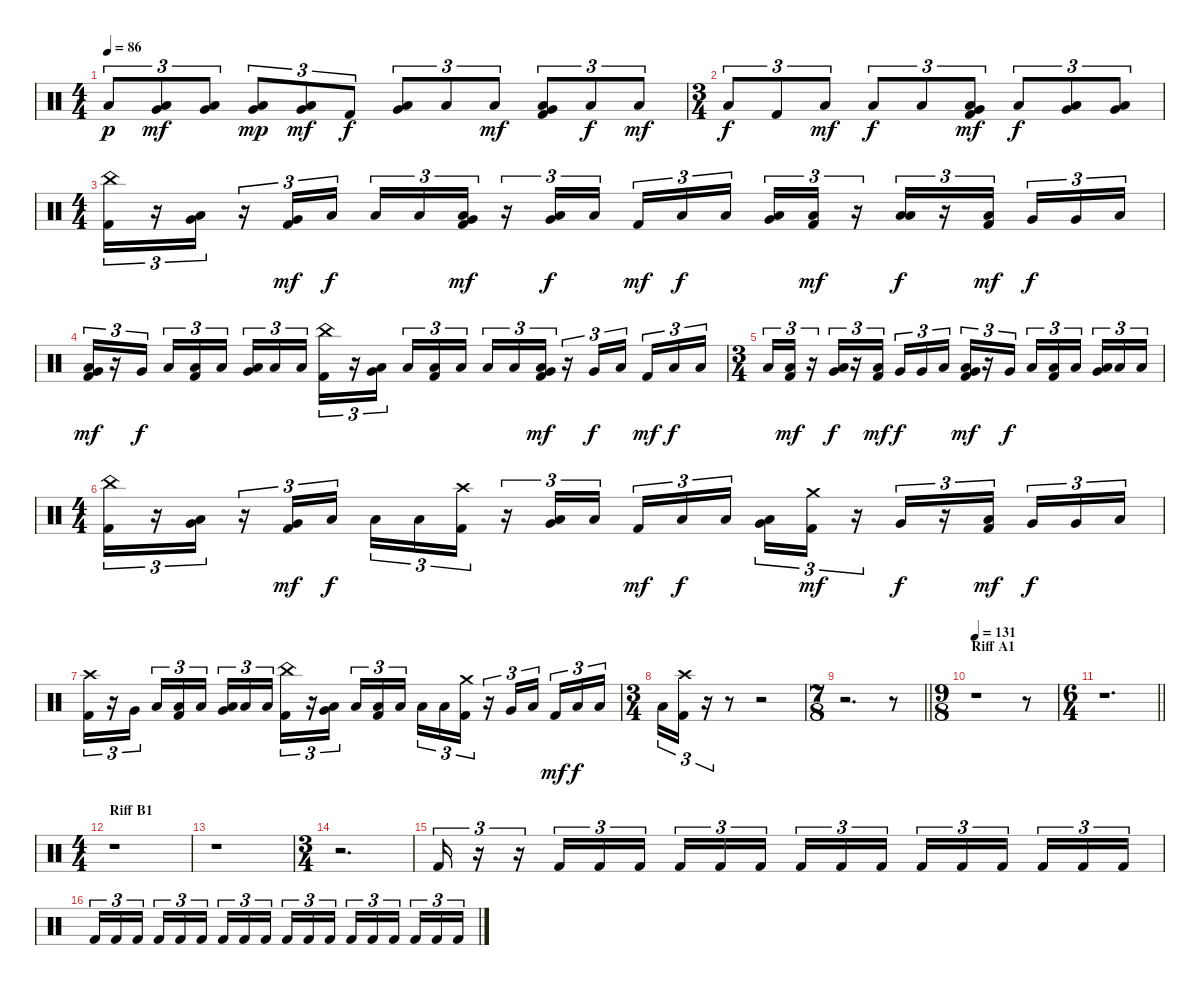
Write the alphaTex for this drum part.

\track "" {instrument percussion}
\staff {score}
\articulation defaults
\ts (4 4)
\tempo 86
\clef neutral
\ks c "Low Floor Tom (hit)".8{tu (3 2) dy p}
("Very Low Tom (hit)" "Low Floor Tom (hit)").8{tu (3 2) dy mf} ("Very Low Tom (hit)" "Low Floor Tom (hit)").8{tu (3 2)} ("Very Low Tom (hit)" "Low Floor Tom (hit)").8{tu (3 2) dy mp} ("Very Low Tom (hit)" "Low Floor Tom (hit)").8{tu (3 2) dy mf} "Kick (hit) 2".8{tu (3 2) dy f} ("Very Low Tom (hit)" "Low Floor Tom (hit)").8{tu (3 2)} "Low Floor Tom (hit)".8{tu (3 2)} "Low Floor Tom (hit)".8{tu (3 2) dy mf} ("Very Low Tom (hit)" "Low Floor Tom (hit)" "Kick (hit) 2").8{tu (3 2)} "Low Floor Tom (hit)".8{tu (3 2) dy f} "Low Floor Tom (hit)".8{tu (3 2) dy mf} |
\ts (3 4)
"Low Floor Tom (hit)".8{tu (3 2) dy f} "Kick (hit) 2".8{tu (3 2)} "Low Floor Tom (hit)".8{tu (3 2) dy mf} "Low Floor Tom (hit)".8{tu (3 2) dy f} "Low Floor Tom (hit)".8{tu (3 2)} ("Very Low Tom (hit)" "Low Floor Tom (hit)" "Kick (hit) 2").8{tu (3 2) dy mf} "Low Floor Tom (hit)".8{tu (3 2) dy f} ("Very Low Tom (hit)" "Low Floor Tom (hit)").8{tu (3 2)} ("Very Low Tom (hit)" "Low Floor Tom (hit)").8{tu (3 2)} |
\ts (4 4)
("China (hit)" "Kick (hit) 2").16{tu (3 2) volume 9} r.16{tu (3 2)} ("Low Tom (hit)" "Very Low Tom (hit)").16{tu (3 2)} r.16{tu (3 2)} ("Very Low Tom (hit)" "Kick (hit) 2").16{tu (3 2) dy mf} "Low Floor Tom (hit)".16{tu (3 2) dy f} "Low Floor Tom (hit)".16{tu (3 2)} "Low Floor Tom (hit)".16{tu (3 2)} ("Very Low Tom (hit)" "Low Floor Tom (hit)" "Kick (hit) 2").16{tu (3 2) dy mf} r.16{tu (3 2)} ("Very Low Tom (hit)" "Low Floor Tom (hit)").16{tu (3 2) dy f} "Low Floor Tom (hit)".16{tu (3 2)} "Kick (hit) 2".16{tu (3 2) dy mf} "Low Floor Tom (hit)".16{tu (3 2) dy f} "Low Floor Tom (hit)".16{tu (3 2) beam splitsecondary} ("Very Low Tom (hit)" "Low Floor Tom (hit)").16{tu (3 2)} ("Low Tom (hit)" "Kick (hit) 2").16{tu (3 2) dy mf} r.16{tu (3 2)} ("Low Tom (hit)" "Low Floor Tom (hit)").16{tu (3 2) dy f} r.16{tu (3 2)} ("Low Floor Tom (hit)" "Kick (hit) 2").16{tu (3 2) dy mf beam splitsecondary} "Very Low Tom (hit)".16{tu (3 2) dy f} "Very Low Tom (hit)".16{tu (3 2)} "Low Floor Tom (hit)".16{tu (3 2)} |
("Very Low Tom (hit)" "Low Floor Tom (hit)" "Kick (hit) 2").16{tu (3 2) dy mf} r.16{tu (3 2)} "Very Low Tom (hit)".16{tu (3 2) dy f beam splitsecondary} "Low Floor Tom (hit)".16{tu (3 2)} ("Low Floor Tom (hit)" "Kick (hit) 2").16{tu (3 2)} "Low Floor Tom (hit)".16{tu (3 2)} ("Very Low Tom (hit)" "Low Floor Tom (hit)").16{tu (3 2)} "Low Floor Tom (hit)".16{tu (3 2)} "Low Floor Tom (hit)".16{tu (3 2) beam splitsecondary} ("China (hit)" "Kick (hit) 2").16{tu (3 2)} r.16{tu (3 2)} ("Very Low Tom (hit)" "Low Floor Tom (hit)").16{tu (3 2)} "Low Floor Tom (hit)".16{tu (3 2)} ("Low Floor Tom (hit)" "Kick (hit) 2").16{tu (3 2)} "Low Floor Tom (hit)".16{tu (3 2) beam splitsecondary} "Low Floor Tom (hit)".16{tu (3 2)} "Low Floor Tom (hit)".16{tu (3 2)} ("Very Low Tom (hit)" "Low Floor Tom (hit)" "Kick (hit) 2").16{tu (3 2) dy mf} r.16{tu (3 2)} "Very Low Tom (hit)".16{tu (3 2) dy f} "Low Floor Tom (hit)".16{tu (3 2) beam splitsecondary} "Kick (hit) 2".16{tu (3 2) dy mf} "Low Floor Tom (hit)".16{tu (3 2) dy f} "Low Floor Tom (hit)".16{tu (3 2)} |
\ts (3 4)
"Low Floor Tom (hit)".16{tu (3 2)} ("Low Tom (hit)" "Kick (hit) 2").16{tu (3 2) dy mf} r.16{tu (3 2)} ("Very Low Tom (hit)" "Low Floor Tom (hit)").16{tu (3 2) dy f} r.16{tu (3 2)} ("Low Floor Tom (hit)" "Kick (hit) 2").16{tu (3 2) dy mf} "Very Low Tom (hit)".16{tu (3 2) dy f} "Very Low Tom (hit)".16{tu (3 2)} "Low Floor Tom (hit)".16{tu (3 2) beam splitsecondary} ("Very Low Tom (hit)" "Low Floor Tom (hit)" "Kick (hit) 2").16{tu (3 2) dy mf} r.16{tu (3 2)} "Very Low Tom (hit)".16{tu (3 2) dy f} "Low Floor Tom (hit)".16{tu (3 2)} ("Low Floor Tom (hit)" "Kick (hit) 2").16{tu (3 2)} "Low Floor Tom (hit)".16{tu (3 2) beam splitsecondary} ("Very Low Tom (hit)" "Low Floor Tom (hit)").16{tu (3 2)} "Low Floor Tom (hit)".16{tu (3 2)} "Low Floor Tom (hit)".16{tu (3 2)} |
\ts (4 4)
("China (hit)" "Kick (hit) 2").16{tu (3 2)} r.16{tu (3 2)} ("Low Tom (hit)" "Very Low Tom (hit)").16{tu (3 2)} r.16{tu (3 2)} ("Very Low Tom (hit)" "Kick (hit) 2").16{tu (3 2) dy mf} "Low Floor Tom (hit)".16{tu (3 2) dy f} "Low Floor Tom (hit)".16{tu (3 2)} "Low Floor Tom (hit)".16{tu (3 2)} ("Crash high (hit)" "Kick (hit) 2").16{tu (3 2)} r.16{tu (3 2)} ("Very Low Tom (hit)" "Low Floor Tom (hit)").16{tu (3 2)} "Low Floor Tom (hit)".16{tu (3 2)} "Kick (hit) 2".16{tu (3 2) dy mf} "Low Floor Tom (hit)".16{tu (3 2) dy f} "Low Floor Tom (hit)".16{tu (3 2) beam splitsecondary} ("Very Low Tom (hit)" "Low Floor Tom (hit)").16{tu (3 2)} ("Crash medium (hit)" "Kick (hit) 2").16{tu (3 2) dy mf} r.16{tu (3 2)} "Very Low Tom (hit)".16{tu (3 2) dy f} r.16{tu (3 2)} ("Low Floor Tom (hit)" "Kick (hit) 2").16{tu (3 2) dy mf beam splitsecondary} "Very Low Tom (hit)".16{tu (3 2) dy f} "Very Low Tom (hit)".16{tu (3 2)} "Low Floor Tom (hit)".16{tu (3 2)} |
("Crash high (hit)" "Kick (hit) 2").16{tu (3 2)} r.16{tu (3 2)} "Very Low Tom (hit)".16{tu (3 2) beam splitsecondary} "Low Floor Tom (hit)".16{tu (3 2)} ("Low Floor Tom (hit)" "Kick (hit) 2").16{tu (3 2)} "Low Floor Tom (hit)".16{tu (3 2)} ("Very Low Tom (hit)" "Low Floor Tom (hit)").16{tu (3 2)} "Low Floor Tom (hit)".16{tu (3 2)} "Low Floor Tom (hit)".16{tu (3 2) beam splitsecondary} ("China (hit)" "Kick (hit) 2").16{tu (3 2)} r.16{tu (3 2)} ("Very Low Tom (hit)" "Low Floor Tom (hit)").16{tu (3 2)} "Low Floor Tom (hit)".16{tu (3 2)} ("Low Floor Tom (hit)" "Kick (hit) 2").16{tu (3 2)} "Low Floor Tom (hit)".16{tu (3 2) beam splitsecondary} "Low Floor Tom (hit)".16{tu (3 2)} "Low Floor Tom (hit)".16{tu (3 2)} ("Crash medium (hit)" "Kick (hit) 2").16{tu (3 2)} r.16{tu (3 2)} "Very Low Tom (hit)".16{tu (3 2)} "Low Floor Tom (hit)".16{tu (3 2) beam splitsecondary} "Kick (hit) 2".16{tu (3 2) dy mf} "Low Floor Tom (hit)".16{tu (3 2) dy f} "Low Floor Tom (hit)".16{tu (3 2)} |
\ts (3 4)
"Low Floor Tom (hit)".16{tu (3 2)} ("Crash high (hit)" "Kick (hit) 2").16{tu (3 2)} r.16{tu (3 2)} r.8 r.2 |
\ts (7 8)
\barLineRight lightlight
r.2{d} r.8 |
\ts (9 8)
\section ("" "Riff A1")
\tempo 131
r.1{volume 12} r.8 |
\ts (6 4)
\barLineRight lightlight
r.1{d} |
\ts (4 4)
\section ("" "Riff B1")
r.1 |
r.1 |
\ts (3 4)
r.2{d} |
"Kick (hit) 2".16{tu (3 2)} r.16{tu (3 2)} r.16{tu (3 2)} "Kick (hit) 2".16{tu (3 2)} "Kick (hit) 2".16{tu (3 2)} "Kick (hit) 2".16{tu (3 2)} "Kick (hit) 2".16{tu (3 2)} "Kick (hit) 2".16{tu (3 2)} "Kick (hit) 2".16{tu (3 2) beam splitsecondary} "Kick (hit) 2".16{tu (3 2)} "Kick (hit) 2".16{tu (3 2)} "Kick (hit) 2".16{tu (3 2)} "Kick (hit) 2".16{tu (3 2)} "Kick (hit) 2".16{tu (3 2)} "Kick (hit) 2".16{tu (3 2) beam splitsecondary} "Kick (hit) 2".16{tu (3 2)} "Kick (hit) 2".16{tu (3 2)} "Kick (hit) 2".16{tu (3 2)} |
"Kick (hit) 2".16{tu (3 2)} "Kick (hit) 2".16{tu (3 2)} "Kick (hit) 2".16{tu (3 2) beam splitsecondary} "Kick (hit) 2".16{tu (3 2)} "Kick (hit) 2".16{tu (3 2)} "Kick (hit) 2".16{tu (3 2)} "Kick (hit) 2".16{tu (3 2)} "Kick (hit) 2".16{tu (3 2)} "Kick (hit) 2".16{tu (3 2) beam splitsecondary} "Kick (hit) 2".16{tu (3 2)} "Kick (hit) 2".16{tu (3 2)} "Kick (hit) 2".16{tu (3 2)} "Kick (hit) 2".16{tu (3 2)} "Kick (hit) 2".16{tu (3 2)} "Kick (hit) 2".16{tu (3 2) beam splitsecondary} "Kick (hit) 2".16{tu (3 2)} "Kick (hit) 2".16{tu (3 2)} "Kick (hit) 2".16{tu (3 2)}
